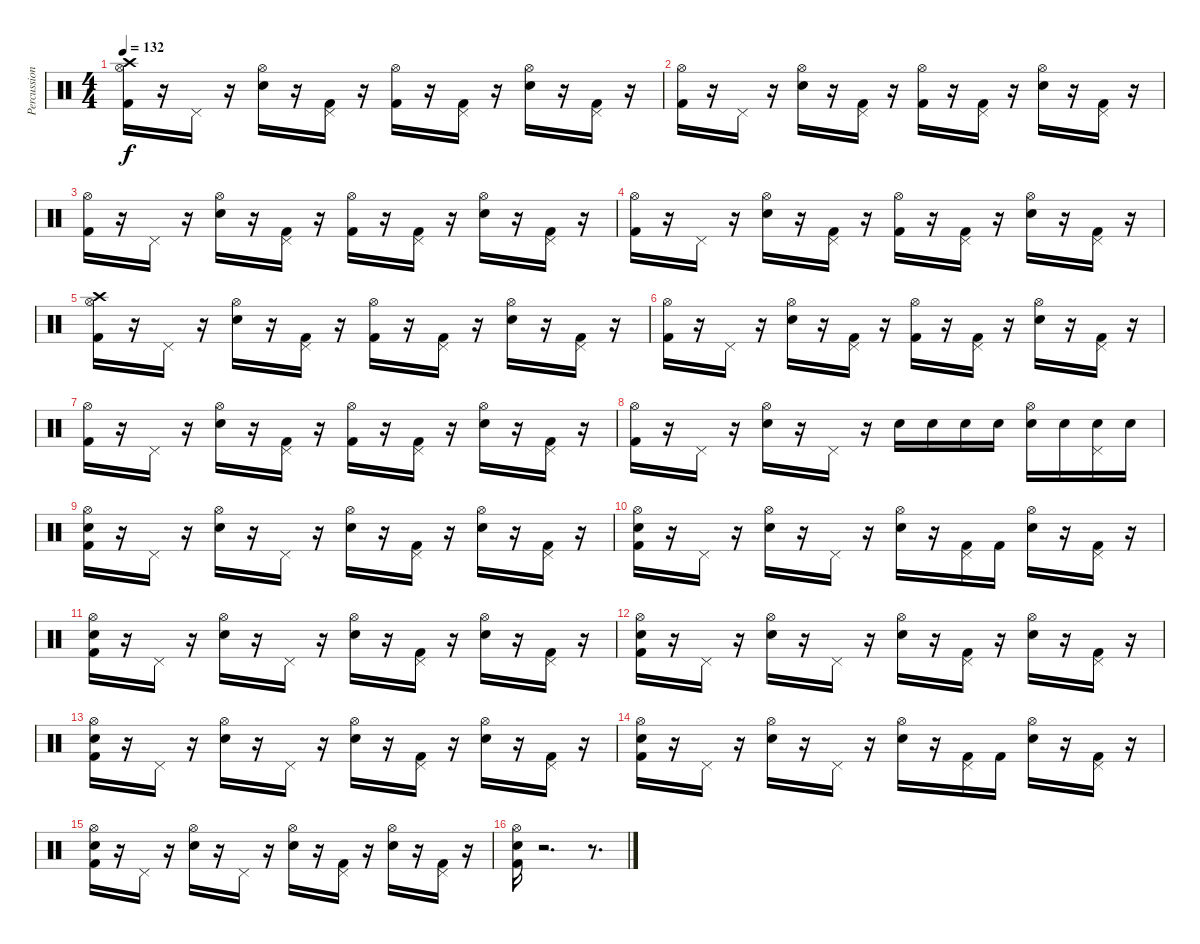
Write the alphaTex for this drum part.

\track ("Percussion" "Percussion") {instrument percussion}
\staff {score}
\articulation defaults
\ts (4 4)
\tempo 132
\clef neutral
\ks c
("Crash high (hit)" "Hi-Hat (open)" "Kick (hit) 2").16{dy f} r.16 "Pedal Hi-Hat (hit)".16 r.16 ("Hi-Hat (open)" "Snare (hit) 2").16 r.16 ("Pedal Hi-Hat (hit)" "Kick (hit) 2").16 r.16 ("Hi-Hat (open)" "Kick (hit) 2").16 r.16 ("Pedal Hi-Hat (hit)" "Kick (hit) 2").16 r.16 ("Hi-Hat (open)" "Snare (hit) 2").16 r.16 ("Pedal Hi-Hat (hit)" "Kick (hit) 2").16 r.16 |
("Kick (hit) 2" "Hi-Hat (open)").16 r.16 "Pedal Hi-Hat (hit)".16 r.16 ("Snare (hit) 2" "Hi-Hat (open)").16 r.16 ("Kick (hit) 2" "Pedal Hi-Hat (hit)").16 r.16 ("Kick (hit) 2" "Hi-Hat (open)").16 r.16 ("Kick (hit) 2" "Pedal Hi-Hat (hit)").16 r.16 ("Snare (hit) 2" "Hi-Hat (open)").16 r.16 ("Kick (hit) 2" "Pedal Hi-Hat (hit)").16 r.16 |
("Kick (hit) 2" "Hi-Hat (open)").16 r.16 "Pedal Hi-Hat (hit)".16 r.16 ("Snare (hit) 2" "Hi-Hat (open)").16 r.16 ("Kick (hit) 2" "Pedal Hi-Hat (hit)").16 r.16 ("Kick (hit) 2" "Hi-Hat (open)").16 r.16 ("Kick (hit) 2" "Pedal Hi-Hat (hit)").16 r.16 ("Snare (hit) 2" "Hi-Hat (open)").16 r.16 ("Kick (hit) 2" "Pedal Hi-Hat (hit)").16 r.16 |
("Kick (hit) 2" "Hi-Hat (open)").16 r.16 "Pedal Hi-Hat (hit)".16 r.16 ("Snare (hit) 2" "Hi-Hat (open)").16 r.16 ("Kick (hit) 2" "Pedal Hi-Hat (hit)").16 r.16 ("Kick (hit) 2" "Hi-Hat (open)").16 r.16 ("Kick (hit) 2" "Pedal Hi-Hat (hit)").16 r.16 ("Snare (hit) 2" "Hi-Hat (open)").16 r.16 ("Kick (hit) 2" "Pedal Hi-Hat (hit)").16 r.16 |
("Crash high (hit)" "Hi-Hat (open)" "Kick (hit) 2").16 r.16 "Pedal Hi-Hat (hit)".16 r.16 ("Hi-Hat (open)" "Snare (hit) 2").16 r.16 ("Pedal Hi-Hat (hit)" "Kick (hit) 2").16 r.16 ("Hi-Hat (open)" "Kick (hit) 2").16 r.16 ("Pedal Hi-Hat (hit)" "Kick (hit) 2").16 r.16 ("Hi-Hat (open)" "Snare (hit) 2").16 r.16 ("Pedal Hi-Hat (hit)" "Kick (hit) 2").16 r.16 |
("Kick (hit) 2" "Hi-Hat (open)").16 r.16 "Pedal Hi-Hat (hit)".16 r.16 ("Snare (hit) 2" "Hi-Hat (open)").16 r.16 ("Kick (hit) 2" "Pedal Hi-Hat (hit)").16 r.16 ("Kick (hit) 2" "Hi-Hat (open)").16 r.16 ("Kick (hit) 2" "Pedal Hi-Hat (hit)").16 r.16 ("Snare (hit) 2" "Hi-Hat (open)").16 r.16 ("Kick (hit) 2" "Pedal Hi-Hat (hit)").16 r.16 |
("Kick (hit) 2" "Hi-Hat (open)").16 r.16 "Pedal Hi-Hat (hit)".16 r.16 ("Snare (hit) 2" "Hi-Hat (open)").16 r.16 ("Kick (hit) 2" "Pedal Hi-Hat (hit)").16 r.16 ("Kick (hit) 2" "Hi-Hat (open)").16 r.16 ("Kick (hit) 2" "Pedal Hi-Hat (hit)").16 r.16 ("Snare (hit) 2" "Hi-Hat (open)").16 r.16 ("Kick (hit) 2" "Pedal Hi-Hat (hit)").16 r.16 |
("Kick (hit) 2" "Hi-Hat (open)").16 r.16 "Pedal Hi-Hat (hit)".16 r.16 ("Snare (hit) 2" "Hi-Hat (open)").16 r.16 "Pedal Hi-Hat (hit)".16 r.16 "Snare (hit) 2".16 "Snare (hit) 2".16 "Snare (hit) 2".16 "Snare (hit) 2".16 ("Snare (hit) 2" "Hi-Hat (open)").16 "Snare (hit) 2".16 ("Snare (hit) 2" "Pedal Hi-Hat (hit)").16 "Snare (hit) 2".16 |
("Hi-Hat (open)" "Kick (hit) 2" "Snare (hit) 2").16 r.16 "Pedal Hi-Hat (hit)".16 r.16 ("Hi-Hat (open)" "Snare (hit) 2").16 r.16 "Pedal Hi-Hat (hit)".16 r.16 ("Hi-Hat (open)" "Snare (hit) 2").16 r.16 ("Pedal Hi-Hat (hit)" "Kick (hit) 2").16 r.16 ("Hi-Hat (open)" "Snare (hit) 2").16 r.16 ("Pedal Hi-Hat (hit)" "Kick (hit) 2").16 r.16 |
("Hi-Hat (open)" "Snare (hit) 2" "Kick (hit) 2").16 r.16 "Pedal Hi-Hat (hit)".16 r.16 ("Hi-Hat (open)" "Snare (hit) 2").16 r.16 "Pedal Hi-Hat (hit)".16 r.16 ("Hi-Hat (open)" "Snare (hit) 2").16 r.16 ("Pedal Hi-Hat (hit)" "Kick (hit) 2").16 "Kick (hit) 2".16 ("Hi-Hat (open)" "Snare (hit) 2").16 r.16 ("Pedal Hi-Hat (hit)" "Kick (hit) 2").16 r.16 |
("Hi-Hat (open)" "Kick (hit) 2" "Snare (hit) 2").16 r.16 "Pedal Hi-Hat (hit)".16 r.16 ("Hi-Hat (open)" "Snare (hit) 2").16 r.16 "Pedal Hi-Hat (hit)".16 r.16 ("Hi-Hat (open)" "Snare (hit) 2").16 r.16 ("Pedal Hi-Hat (hit)" "Kick (hit) 2").16 r.16 ("Hi-Hat (open)" "Snare (hit) 2").16 r.16 ("Pedal Hi-Hat (hit)" "Kick (hit) 2").16 r.16 |
("Hi-Hat (open)" "Kick (hit) 2" "Snare (hit) 2").16 r.16 "Pedal Hi-Hat (hit)".16 r.16 ("Hi-Hat (open)" "Snare (hit) 2").16 r.16 "Pedal Hi-Hat (hit)".16 r.16 ("Hi-Hat (open)" "Snare (hit) 2").16 r.16 ("Pedal Hi-Hat (hit)" "Kick (hit) 2").16 r.16 ("Hi-Hat (open)" "Snare (hit) 2").16 r.16 ("Pedal Hi-Hat (hit)" "Kick (hit) 2").16 r.16 |
("Hi-Hat (open)" "Kick (hit) 2" "Snare (hit) 2").16 r.16 "Pedal Hi-Hat (hit)".16 r.16 ("Hi-Hat (open)" "Snare (hit) 2").16 r.16 "Pedal Hi-Hat (hit)".16 r.16 ("Hi-Hat (open)" "Snare (hit) 2").16 r.16 ("Pedal Hi-Hat (hit)" "Kick (hit) 2").16 r.16 ("Hi-Hat (open)" "Snare (hit) 2").16 r.16 ("Pedal Hi-Hat (hit)" "Kick (hit) 2").16 r.16 |
("Hi-Hat (open)" "Snare (hit) 2" "Kick (hit) 2").16 r.16 "Pedal Hi-Hat (hit)".16 r.16 ("Hi-Hat (open)" "Snare (hit) 2").16 r.16 "Pedal Hi-Hat (hit)".16 r.16 ("Hi-Hat (open)" "Snare (hit) 2").16 r.16 ("Pedal Hi-Hat (hit)" "Kick (hit) 2").16 "Kick (hit) 2".16 ("Hi-Hat (open)" "Snare (hit) 2").16 r.16 ("Pedal Hi-Hat (hit)" "Kick (hit) 2").16 r.16 |
("Hi-Hat (open)" "Kick (hit) 2" "Snare (hit) 2").16 r.16 "Pedal Hi-Hat (hit)".16 r.16 ("Hi-Hat (open)" "Snare (hit) 2").16 r.16 "Pedal Hi-Hat (hit)".16 r.16 ("Hi-Hat (open)" "Snare (hit) 2").16 r.16 ("Pedal Hi-Hat (hit)" "Kick (hit) 2").16 r.16 ("Hi-Hat (open)" "Snare (hit) 2").16 r.16 ("Pedal Hi-Hat (hit)" "Kick (hit) 2").16 r.16 |
("Hi-Hat (open)" "Kick (hit) 2" "Snare (hit) 2").16 r.2{d} r.8{d}
